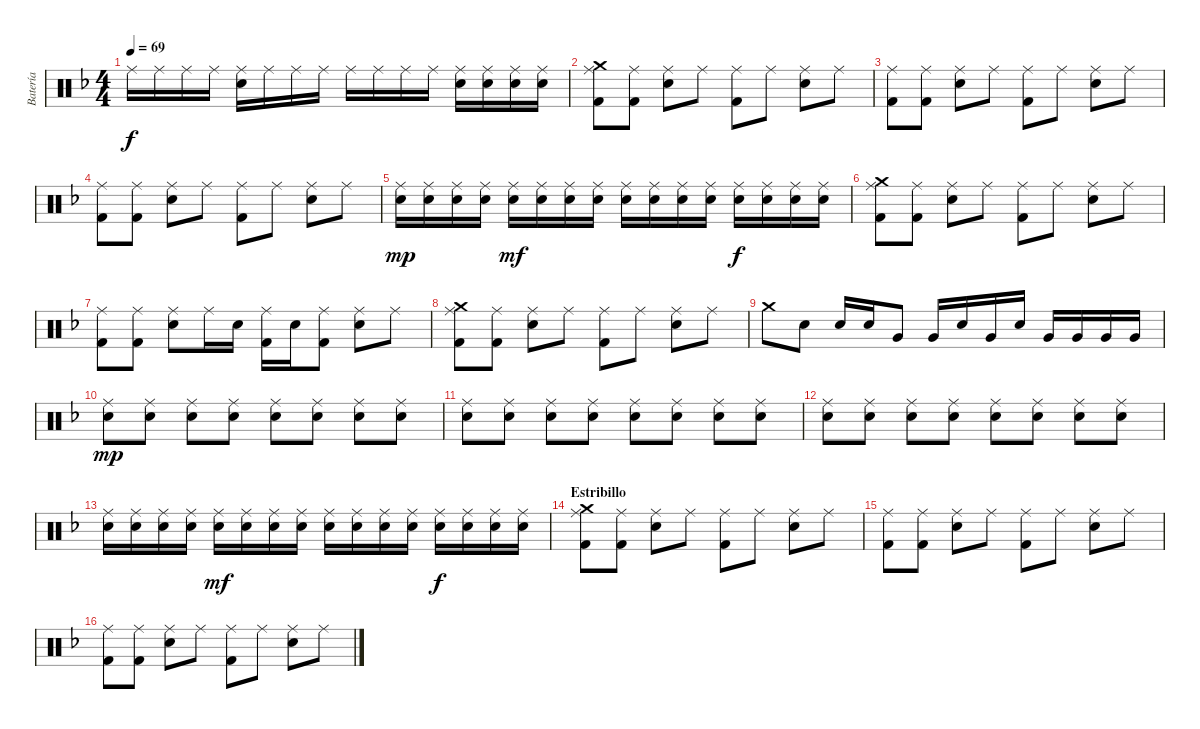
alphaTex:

\track ("Batería" "Batería") {instrument percussion}
\staff {score}
\articulation defaults
\ts (4 4)
\tempo 69
\clef neutral
\ks dminor "Ride (middle)".16{dy f} "Ride (middle)".16 "Ride (middle)".16 "Ride (middle)".16
("Electric Snare (hit)" "Ride (middle)").16 "Ride (middle)".16 "Ride (middle)".16 "Ride (middle)".16 "Ride (middle)".16 "Ride (middle)".16 "Ride (middle)".16 "Ride (middle)".16 ("Electric Snare (hit)" "Ride (middle)").16 ("Electric Snare (hit)" "Ride (middle)").16 ("Electric Snare (hit)" "Ride (middle)").16 ("Electric Snare (hit)" "Ride (middle)").16 |
("Crash medium (hit)" "Kick (hit) 2" "Ride (middle)").8 ("Kick (hit) 2" "Ride (middle)").8 ("Electric Snare (hit)" "Ride (middle)").8 "Ride (middle)".8 ("Kick (hit) 2" "Ride (middle)").8 "Ride (middle)".8 ("Electric Snare (hit)" "Ride (middle)").8 "Ride (middle)".8 |
("Kick (hit) 2" "Ride (middle)").8 ("Kick (hit) 2" "Ride (middle)").8 ("Electric Snare (hit)" "Ride (middle)").8 "Ride (middle)".8 ("Kick (hit) 2" "Ride (middle)").8 "Ride (middle)".8 ("Electric Snare (hit)" "Ride (middle)").8 "Ride (middle)".8 |
("Kick (hit) 2" "Ride (middle)").8 ("Kick (hit) 2" "Ride (middle)").8 ("Electric Snare (hit)" "Ride (middle)").8 "Ride (middle)".8 ("Kick (hit) 2" "Ride (middle)").8 "Ride (middle)".8 ("Electric Snare (hit)" "Ride (middle)").8 "Ride (middle)".8 |
("Electric Snare (hit)" "Ride (middle)").16{dy mp} ("Electric Snare (hit)" "Ride (middle)").16 ("Electric Snare (hit)" "Ride (middle)").16 ("Electric Snare (hit)" "Ride (middle)").16 ("Electric Snare (hit)" "Ride (middle)").16{dy mf} ("Electric Snare (hit)" "Ride (middle)").16 ("Electric Snare (hit)" "Ride (middle)").16 ("Electric Snare (hit)" "Ride (middle)").16 ("Electric Snare (hit)" "Ride (middle)").16 ("Electric Snare (hit)" "Ride (middle)").16 ("Electric Snare (hit)" "Ride (middle)").16 ("Electric Snare (hit)" "Ride (middle)").16 ("Electric Snare (hit)" "Ride (middle)").16{dy f} ("Electric Snare (hit)" "Ride (middle)").16 ("Electric Snare (hit)" "Ride (middle)").16 ("Electric Snare (hit)" "Ride (middle)").16 |
("Crash medium (hit)" "Kick (hit) 2" "Ride (middle)").8 ("Kick (hit) 2" "Ride (middle)").8 ("Electric Snare (hit)" "Ride (middle)").8 "Ride (middle)".8 ("Kick (hit) 2" "Ride (middle)").8 "Ride (middle)".8 ("Electric Snare (hit)" "Ride (middle)").8 "Ride (middle)".8 |
("Kick (hit) 2" "Ride (middle)").8 ("Kick (hit) 2" "Ride (middle)").8 ("Electric Snare (hit)" "Ride (middle)").8 "Ride (middle)".16 "Electric Snare (hit)".16 ("Kick (hit) 2" "Ride (middle)").16 "Electric Snare (hit)".16 ("Kick (hit) 2" "Ride (middle)").8 ("Electric Snare (hit)" "Ride (middle)").8 "Ride (middle)".8 |
("Crash medium (hit)" "Kick (hit) 2" "Ride (middle)").8 ("Kick (hit) 2" "Ride (middle)").8 ("Electric Snare (hit)" "Ride (middle)").8 "Ride (middle)".8 ("Kick (hit) 2" "Ride (middle)").8 "Ride (middle)".8 ("Electric Snare (hit)" "Ride (middle)").8 "Ride (middle)".8 |
"Crash medium (hit)".8 "Electric Snare (hit)".8 "Electric Snare (hit)".16 "Electric Snare (hit)".16 "Very Low Tom (hit)".8 "Very Low Tom (hit)".16 "Electric Snare (hit)".16 "Very Low Tom (hit)".16 "Electric Snare (hit)".16 "Very Low Tom (hit)".16 "Very Low Tom (hit)".16 "Very Low Tom (hit)".16 "Very Low Tom (hit)".16 |
("Electric Snare (hit)" "Ride (middle)").8{dy mp} ("Electric Snare (hit)" "Ride (middle)").8 ("Electric Snare (hit)" "Ride (middle)").8 ("Electric Snare (hit)" "Ride (middle)").8 ("Electric Snare (hit)" "Ride (middle)").8 ("Electric Snare (hit)" "Ride (middle)").8 ("Electric Snare (hit)" "Ride (middle)").8 ("Electric Snare (hit)" "Ride (middle)").8 |
("Electric Snare (hit)" "Ride (middle)").8 ("Electric Snare (hit)" "Ride (middle)").8 ("Electric Snare (hit)" "Ride (middle)").8 ("Electric Snare (hit)" "Ride (middle)").8 ("Electric Snare (hit)" "Ride (middle)").8 ("Electric Snare (hit)" "Ride (middle)").8 ("Electric Snare (hit)" "Ride (middle)").8 ("Electric Snare (hit)" "Ride (middle)").8 |
("Electric Snare (hit)" "Ride (middle)").8 ("Electric Snare (hit)" "Ride (middle)").8 ("Electric Snare (hit)" "Ride (middle)").8 ("Electric Snare (hit)" "Ride (middle)").8 ("Electric Snare (hit)" "Ride (middle)").8 ("Electric Snare (hit)" "Ride (middle)").8 ("Electric Snare (hit)" "Ride (middle)").8 ("Electric Snare (hit)" "Ride (middle)").8 |
("Electric Snare (hit)" "Ride (middle)").16 ("Electric Snare (hit)" "Ride (middle)").16 ("Electric Snare (hit)" "Ride (middle)").16 ("Electric Snare (hit)" "Ride (middle)").16 ("Electric Snare (hit)" "Ride (middle)").16{dy mf} ("Electric Snare (hit)" "Ride (middle)").16 ("Electric Snare (hit)" "Ride (middle)").16 ("Electric Snare (hit)" "Ride (middle)").16 ("Electric Snare (hit)" "Ride (middle)").16 ("Electric Snare (hit)" "Ride (middle)").16 ("Electric Snare (hit)" "Ride (middle)").16 ("Electric Snare (hit)" "Ride (middle)").16 ("Electric Snare (hit)" "Ride (middle)").16{dy f} ("Electric Snare (hit)" "Ride (middle)").16 ("Electric Snare (hit)" "Ride (middle)").16 ("Electric Snare (hit)" "Ride (middle)").16 |
\section ("" "Estribillo")
("Crash medium (hit)" "Kick (hit) 2" "Ride (middle)").8 ("Kick (hit) 2" "Ride (middle)").8 ("Electric Snare (hit)" "Ride (middle)").8 "Ride (middle)".8 ("Kick (hit) 2" "Ride (middle)").8 "Ride (middle)".8 ("Electric Snare (hit)" "Ride (middle)").8 "Ride (middle)".8 |
("Kick (hit) 2" "Ride (middle)").8 ("Kick (hit) 2" "Ride (middle)").8 ("Electric Snare (hit)" "Ride (middle)").8 "Ride (middle)".8 ("Kick (hit) 2" "Ride (middle)").8 "Ride (middle)".8 ("Electric Snare (hit)" "Ride (middle)").8 "Ride (middle)".8 |
("Kick (hit) 2" "Ride (middle)").8 ("Kick (hit) 2" "Ride (middle)").8 ("Electric Snare (hit)" "Ride (middle)").8 "Ride (middle)".8 ("Kick (hit) 2" "Ride (middle)").8 "Ride (middle)".8 ("Electric Snare (hit)" "Ride (middle)").8 "Ride (middle)".8
